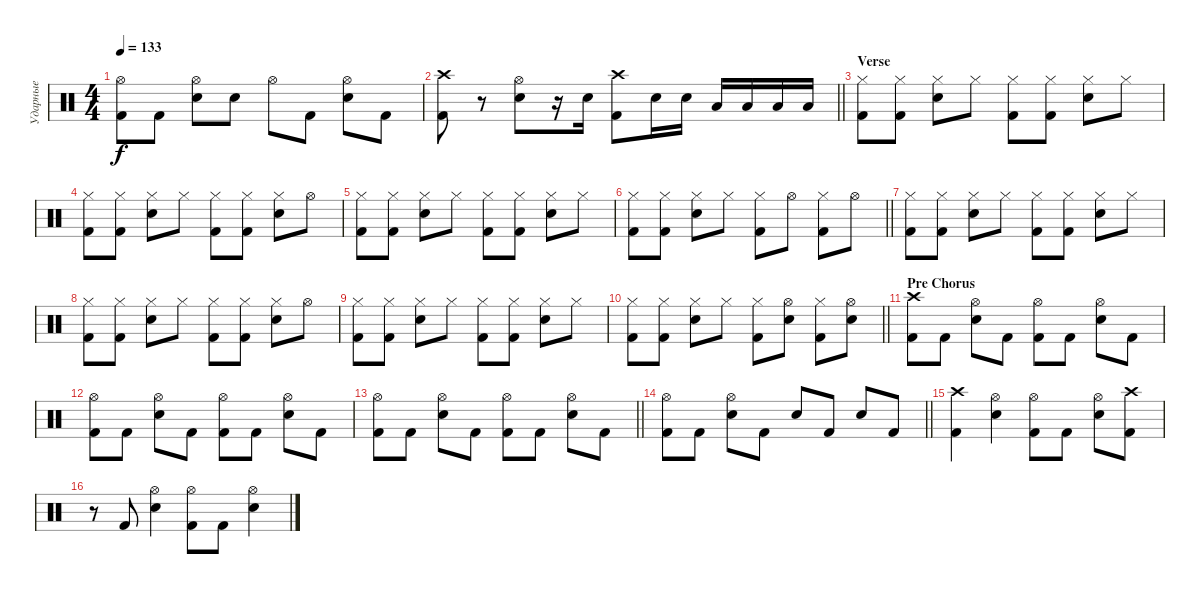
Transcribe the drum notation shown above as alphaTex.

\track ("Ударные" "Ударные") {instrument percussion}
\staff {score}
\articulation defaults
\ts (4 4)
\tempo 133
\clef neutral
\ks c
("Hi-Hat (open)" "Kick (hit) 2").8{dy f} "Kick (hit) 2".8 ("Hi-Hat (open)" "Electric Snare (hit)").8 "Electric Snare (hit)".8 "Hi-Hat (open)".8 "Kick (hit) 2".8 ("Hi-Hat (open)" "Electric Snare (hit)").8 "Kick (hit) 2".8 |
\barLineRight lightlight
("Crash high (hit)" "Kick (hit) 2").8 r.8 ("Hi-Hat (open)" "Electric Snare (hit)").8 r.16 "Electric Snare (hit)".16 ("Crash high (hit)" "Kick (hit) 2").8 "Electric Snare (hit)".16 "Electric Snare (hit)".16 "Low Tom (hit)".16 "Low Tom (hit)".16 "Low Tom (hit)".16 "Low Tom (hit)".16 |
\section ("" "Verse")
("Hi-Hat (closed)" "Kick (hit) 2").8 ("Hi-Hat (closed)" "Kick (hit) 2").8 ("Hi-Hat (closed)" "Electric Snare (hit)").8 "Hi-Hat (closed)".8 ("Hi-Hat (closed)" "Kick (hit) 2").8 ("Hi-Hat (closed)" "Kick (hit) 2").8 ("Hi-Hat (closed)" "Electric Snare (hit)").8 "Hi-Hat (closed)".8 |
("Hi-Hat (closed)" "Kick (hit) 2").8 ("Hi-Hat (closed)" "Kick (hit) 2").8 ("Hi-Hat (closed)" "Electric Snare (hit)").8 "Hi-Hat (closed)".8 ("Hi-Hat (closed)" "Kick (hit) 2").8 ("Hi-Hat (closed)" "Kick (hit) 2").8 ("Hi-Hat (closed)" "Electric Snare (hit)").8 "Hi-Hat (open)".8 |
("Hi-Hat (closed)" "Kick (hit) 2").8 ("Hi-Hat (closed)" "Kick (hit) 2").8 ("Hi-Hat (closed)" "Electric Snare (hit)").8 "Hi-Hat (closed)".8 ("Hi-Hat (closed)" "Kick (hit) 2").8 ("Hi-Hat (closed)" "Kick (hit) 2").8 ("Hi-Hat (closed)" "Electric Snare (hit)").8 "Hi-Hat (closed)".8 |
\barLineRight lightlight
("Hi-Hat (closed)" "Kick (hit) 2").8 ("Hi-Hat (closed)" "Kick (hit) 2").8 ("Hi-Hat (closed)" "Electric Snare (hit)").8 "Hi-Hat (closed)".8 ("Hi-Hat (closed)" "Kick (hit) 2").8 "Hi-Hat (open)".8 ("Hi-Hat (closed)" "Kick (hit) 2").8 "Hi-Hat (open)".8 |
("Hi-Hat (closed)" "Kick (hit) 2").8 ("Hi-Hat (closed)" "Kick (hit) 2").8 ("Hi-Hat (closed)" "Electric Snare (hit)").8 "Hi-Hat (closed)".8 ("Hi-Hat (closed)" "Kick (hit) 2").8 ("Hi-Hat (closed)" "Kick (hit) 2").8 ("Hi-Hat (closed)" "Electric Snare (hit)").8 "Hi-Hat (closed)".8 |
("Hi-Hat (closed)" "Kick (hit) 2").8 ("Hi-Hat (closed)" "Kick (hit) 2").8 ("Hi-Hat (closed)" "Electric Snare (hit)").8 "Hi-Hat (closed)".8 ("Hi-Hat (closed)" "Kick (hit) 2").8 ("Hi-Hat (closed)" "Kick (hit) 2").8 ("Hi-Hat (closed)" "Electric Snare (hit)").8 "Hi-Hat (open)".8 |
("Hi-Hat (closed)" "Kick (hit) 2").8 ("Hi-Hat (closed)" "Kick (hit) 2").8 ("Hi-Hat (closed)" "Electric Snare (hit)").8 "Hi-Hat (closed)".8 ("Hi-Hat (closed)" "Kick (hit) 2").8 ("Hi-Hat (closed)" "Kick (hit) 2").8 ("Hi-Hat (closed)" "Electric Snare (hit)").8 "Hi-Hat (closed)".8 |
\barLineRight lightlight
("Hi-Hat (closed)" "Kick (hit) 2").8 ("Hi-Hat (closed)" "Kick (hit) 2").8 ("Hi-Hat (closed)" "Electric Snare (hit)").8 "Hi-Hat (closed)".8 ("Hi-Hat (closed)" "Kick (hit) 2").8 ("Hi-Hat (open)" "Electric Snare (hit)").8 ("Hi-Hat (closed)" "Kick (hit) 2").8 ("Hi-Hat (open)" "Electric Snare (hit)").8 |
\section ("" "Pre Chorus")
("Crash high (hit)" "Kick (hit) 2").8 "Kick (hit) 2".8 ("Hi-Hat (open)" "Electric Snare (hit)").8 "Kick (hit) 2".8 ("Hi-Hat (open)" "Kick (hit) 2").8 "Kick (hit) 2".8 ("Hi-Hat (open)" "Electric Snare (hit)").8 "Kick (hit) 2".8 |
("Hi-Hat (open)" "Kick (hit) 2").8 "Kick (hit) 2".8 ("Hi-Hat (open)" "Electric Snare (hit)").8 "Kick (hit) 2".8 ("Hi-Hat (open)" "Kick (hit) 2").8 "Kick (hit) 2".8 ("Hi-Hat (open)" "Electric Snare (hit)").8 "Kick (hit) 2".8 |
\barLineRight lightlight
("Hi-Hat (open)" "Kick (hit) 2").8 "Kick (hit) 2".8 ("Hi-Hat (open)" "Electric Snare (hit)").8 "Kick (hit) 2".8 ("Hi-Hat (open)" "Kick (hit) 2").8 "Kick (hit) 2".8 ("Hi-Hat (open)" "Electric Snare (hit)").8 "Kick (hit) 2".8 |
\barLineRight lightlight
("Hi-Hat (open)" "Kick (hit) 2").8 "Kick (hit) 2".8 ("Hi-Hat (open)" "Electric Snare (hit)").8 "Kick (hit) 2".8 "Electric Snare (hit)".8 "Kick (hit) 2".8 "Electric Snare (hit)".8 "Kick (hit) 2".8 |
("Crash high (hit)" "Kick (hit) 2").4 ("Hi-Hat (open)" "Electric Snare (hit)").4 ("Hi-Hat (open)" "Kick (hit) 2").8 "Kick (hit) 2".8 ("Hi-Hat (open)" "Electric Snare (hit)").8 ("Crash high (hit)" "Kick (hit) 2").8 |
r.8 "Kick (hit) 2".8 ("Hi-Hat (open)" "Electric Snare (hit)").4 ("Hi-Hat (open)" "Kick (hit) 2").8 "Kick (hit) 2".8 ("Hi-Hat (open)" "Electric Snare (hit)").4
